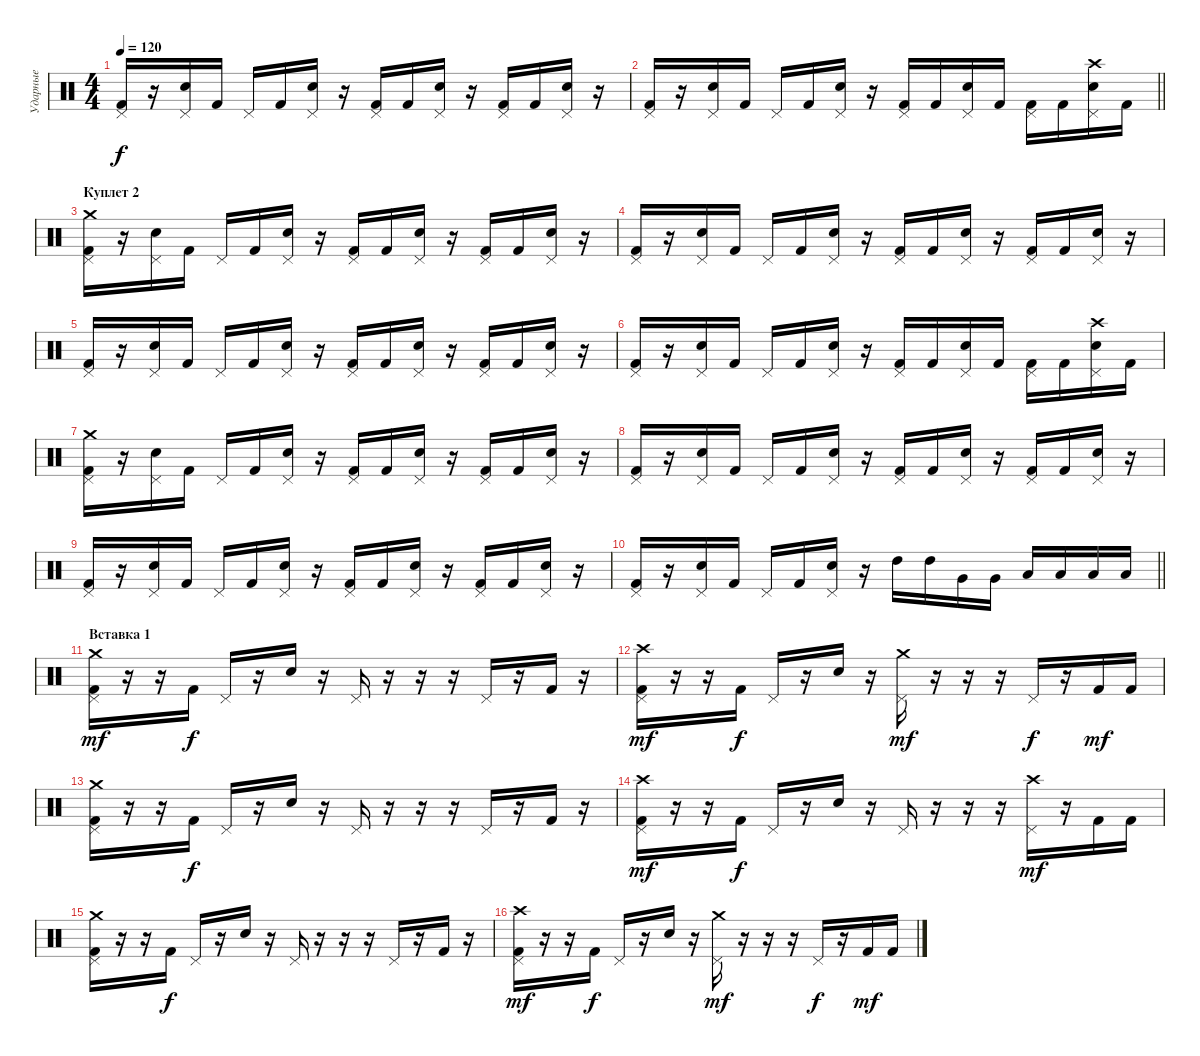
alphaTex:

\track ("Ударные" "Ударные") {instrument percussion}
\staff {score}
\articulation defaults
\ts (4 4)
\tempo 120
\clef neutral
\ks c
("Kick (hit) 2" "Pedal Hi-Hat (hit)").16{dy f} r.16 ("Snare (hit) 2" "Pedal Hi-Hat (hit)").16 "Kick (hit) 2".16 "Pedal Hi-Hat (hit)".16 "Kick (hit) 2".16 ("Snare (hit) 2" "Pedal Hi-Hat (hit)").16 r.16 ("Kick (hit) 2" "Pedal Hi-Hat (hit)").16 "Kick (hit) 2".16 ("Snare (hit) 2" "Pedal Hi-Hat (hit)").16 r.16 ("Kick (hit) 2" "Pedal Hi-Hat (hit)").16 "Kick (hit) 2".16 ("Snare (hit) 2" "Pedal Hi-Hat (hit)").16 r.16 |
\barLineRight lightlight
("Kick (hit) 2" "Pedal Hi-Hat (hit)").16 r.16 ("Snare (hit) 2" "Pedal Hi-Hat (hit)").16 "Kick (hit) 2".16 "Pedal Hi-Hat (hit)".16 "Kick (hit) 2".16 ("Snare (hit) 2" "Pedal Hi-Hat (hit)").16 r.16 ("Kick (hit) 2" "Pedal Hi-Hat (hit)").16 "Kick (hit) 2".16 ("Snare (hit) 2" "Pedal Hi-Hat (hit)").16 "Kick (hit) 2".16 ("Kick (hit) 2" "Pedal Hi-Hat (hit)").16 "Kick (hit) 2".16 ("Snare (hit) 2" "Pedal Hi-Hat (hit)" "Crash high (hit)").16 "Kick (hit) 2".16 |
\section ("" "Куплет 2")
("Kick (hit) 2" "Pedal Hi-Hat (hit)" "Crash medium (hit)").16 r.16 ("Snare (hit) 2" "Pedal Hi-Hat (hit)").16 "Kick (hit) 2".16 "Pedal Hi-Hat (hit)".16 "Kick (hit) 2".16 ("Snare (hit) 2" "Pedal Hi-Hat (hit)").16 r.16 ("Kick (hit) 2" "Pedal Hi-Hat (hit)").16 "Kick (hit) 2".16 ("Snare (hit) 2" "Pedal Hi-Hat (hit)").16 r.16 ("Kick (hit) 2" "Pedal Hi-Hat (hit)").16 "Kick (hit) 2".16 ("Snare (hit) 2" "Pedal Hi-Hat (hit)").16 r.16 |
("Kick (hit) 2" "Pedal Hi-Hat (hit)").16 r.16 ("Snare (hit) 2" "Pedal Hi-Hat (hit)").16 "Kick (hit) 2".16 "Pedal Hi-Hat (hit)".16 "Kick (hit) 2".16 ("Snare (hit) 2" "Pedal Hi-Hat (hit)").16 r.16 ("Kick (hit) 2" "Pedal Hi-Hat (hit)").16 "Kick (hit) 2".16 ("Snare (hit) 2" "Pedal Hi-Hat (hit)").16 r.16 ("Kick (hit) 2" "Pedal Hi-Hat (hit)").16 "Kick (hit) 2".16 ("Snare (hit) 2" "Pedal Hi-Hat (hit)").16 r.16 |
("Kick (hit) 2" "Pedal Hi-Hat (hit)").16 r.16 ("Snare (hit) 2" "Pedal Hi-Hat (hit)").16 "Kick (hit) 2".16 "Pedal Hi-Hat (hit)".16 "Kick (hit) 2".16 ("Snare (hit) 2" "Pedal Hi-Hat (hit)").16 r.16 ("Kick (hit) 2" "Pedal Hi-Hat (hit)").16 "Kick (hit) 2".16 ("Snare (hit) 2" "Pedal Hi-Hat (hit)").16 r.16 ("Kick (hit) 2" "Pedal Hi-Hat (hit)").16 "Kick (hit) 2".16 ("Snare (hit) 2" "Pedal Hi-Hat (hit)").16 r.16 |
("Kick (hit) 2" "Pedal Hi-Hat (hit)").16 r.16 ("Snare (hit) 2" "Pedal Hi-Hat (hit)").16 "Kick (hit) 2".16 "Pedal Hi-Hat (hit)".16 "Kick (hit) 2".16 ("Snare (hit) 2" "Pedal Hi-Hat (hit)").16 r.16 ("Kick (hit) 2" "Pedal Hi-Hat (hit)").16 "Kick (hit) 2".16 ("Snare (hit) 2" "Pedal Hi-Hat (hit)").16 "Kick (hit) 2".16 ("Kick (hit) 2" "Pedal Hi-Hat (hit)").16 "Kick (hit) 2".16 ("Snare (hit) 2" "Pedal Hi-Hat (hit)" "Crash high (hit)").16 "Kick (hit) 2".16 |
("Kick (hit) 2" "Pedal Hi-Hat (hit)" "Crash medium (hit)").16 r.16 ("Snare (hit) 2" "Pedal Hi-Hat (hit)").16 "Kick (hit) 2".16 "Pedal Hi-Hat (hit)".16 "Kick (hit) 2".16 ("Snare (hit) 2" "Pedal Hi-Hat (hit)").16 r.16 ("Kick (hit) 2" "Pedal Hi-Hat (hit)").16 "Kick (hit) 2".16 ("Snare (hit) 2" "Pedal Hi-Hat (hit)").16 r.16 ("Kick (hit) 2" "Pedal Hi-Hat (hit)").16 "Kick (hit) 2".16 ("Snare (hit) 2" "Pedal Hi-Hat (hit)").16 r.16 |
("Kick (hit) 2" "Pedal Hi-Hat (hit)").16 r.16 ("Snare (hit) 2" "Pedal Hi-Hat (hit)").16 "Kick (hit) 2".16 "Pedal Hi-Hat (hit)".16 "Kick (hit) 2".16 ("Snare (hit) 2" "Pedal Hi-Hat (hit)").16 r.16 ("Kick (hit) 2" "Pedal Hi-Hat (hit)").16 "Kick (hit) 2".16 ("Snare (hit) 2" "Pedal Hi-Hat (hit)").16 r.16 ("Kick (hit) 2" "Pedal Hi-Hat (hit)").16 "Kick (hit) 2".16 ("Snare (hit) 2" "Pedal Hi-Hat (hit)").16 r.16 |
("Kick (hit) 2" "Pedal Hi-Hat (hit)").16 r.16 ("Snare (hit) 2" "Pedal Hi-Hat (hit)").16 "Kick (hit) 2".16 "Pedal Hi-Hat (hit)".16 "Kick (hit) 2".16 ("Snare (hit) 2" "Pedal Hi-Hat (hit)").16 r.16 ("Kick (hit) 2" "Pedal Hi-Hat (hit)").16 "Kick (hit) 2".16 ("Snare (hit) 2" "Pedal Hi-Hat (hit)").16 r.16 ("Kick (hit) 2" "Pedal Hi-Hat (hit)").16 "Kick (hit) 2".16 ("Snare (hit) 2" "Pedal Hi-Hat (hit)").16 r.16 |
\barLineRight lightlight
("Kick (hit) 2" "Pedal Hi-Hat (hit)").16 r.16 ("Snare (hit) 2" "Pedal Hi-Hat (hit)").16 "Kick (hit) 2".16 "Pedal Hi-Hat (hit)".16 "Kick (hit) 2".16 ("Snare (hit) 2" "Pedal Hi-Hat (hit)").16 r.16 "High Tom (hit)".16 "High Tom (hit)".16 "Very Low Tom (hit)".16 "Very Low Tom (hit)".16 "Low Tom (hit)".16 "Low Tom (hit)".16 "Low Floor Tom (hit)".16 "Low Floor Tom (hit)".16 |
\section ("" "Вставка 1")
("Kick (hit) 2" "Pedal Hi-Hat (hit)" "Crash medium (hit)").16{dy mf} r.16 r.16 "Kick (hit) 2".16{dy f} "Pedal Hi-Hat (hit)".16 r.16 "Snare (hit) 2".16 r.16 "Pedal Hi-Hat (hit)".16 r.16 r.16 r.16 "Pedal Hi-Hat (hit)".16 r.16 "Kick (hit) 2".16 r.16 |
("Kick (hit) 2" "Pedal Hi-Hat (hit)" "Crash high (hit)").16{dy mf} r.16 r.16 "Kick (hit) 2".16{dy f} "Pedal Hi-Hat (hit)".16 r.16 "Snare (hit) 2".16 r.16 ("Pedal Hi-Hat (hit)" "Crash medium (hit)").16{dy mf} r.16 r.16 r.16 "Pedal Hi-Hat (hit)".16{dy f} r.16 "Kick (hit) 2".16{dy mf} "Kick (hit) 2".16 |
("Kick (hit) 2" "Pedal Hi-Hat (hit)" "Crash medium (hit)").16 r.16 r.16 "Kick (hit) 2".16{dy f} "Pedal Hi-Hat (hit)".16 r.16 "Snare (hit) 2".16 r.16 "Pedal Hi-Hat (hit)".16 r.16 r.16 r.16 "Pedal Hi-Hat (hit)".16 r.16 "Kick (hit) 2".16 r.16 |
("Kick (hit) 2" "Pedal Hi-Hat (hit)" "Crash high (hit)").16{dy mf} r.16 r.16 "Kick (hit) 2".16{dy f} "Pedal Hi-Hat (hit)".16 r.16 "Snare (hit) 2".16 r.16 "Pedal Hi-Hat (hit)".16 r.16 r.16 r.16 ("Pedal Hi-Hat (hit)" "Crash high (hit)").16{dy mf} r.16 "Kick (hit) 2".16 "Kick (hit) 2".16 |
("Kick (hit) 2" "Pedal Hi-Hat (hit)" "Crash medium (hit)").16 r.16 r.16 "Kick (hit) 2".16{dy f} "Pedal Hi-Hat (hit)".16 r.16 "Snare (hit) 2".16 r.16 "Pedal Hi-Hat (hit)".16 r.16 r.16 r.16 "Pedal Hi-Hat (hit)".16 r.16 "Kick (hit) 2".16 r.16 |
("Kick (hit) 2" "Pedal Hi-Hat (hit)" "Crash high (hit)").16{dy mf} r.16 r.16 "Kick (hit) 2".16{dy f} "Pedal Hi-Hat (hit)".16 r.16 "Snare (hit) 2".16 r.16 ("Pedal Hi-Hat (hit)" "Crash medium (hit)").16{dy mf} r.16 r.16 r.16 "Pedal Hi-Hat (hit)".16{dy f} r.16 "Kick (hit) 2".16{dy mf} "Kick (hit) 2".16
